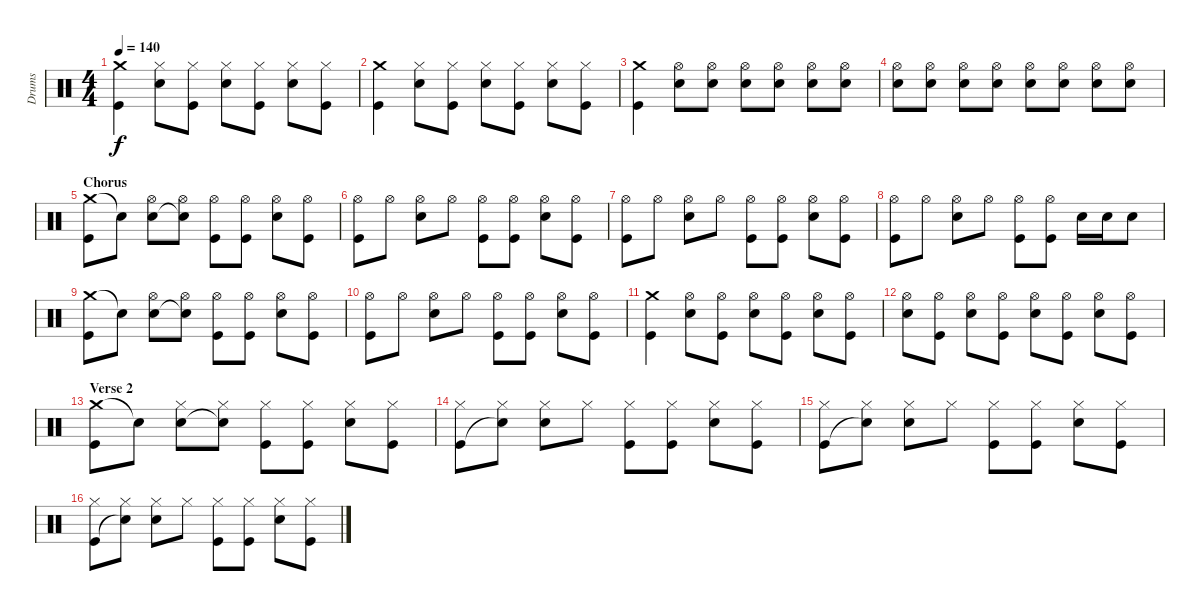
\track ("Drums" "Drums") {instrument percussion}
\staff {score}
\articulation defaults
\ts (4 4)
\tempo 140
\clef neutral
\ks c
("Crash medium (hit)" "Kick (hit)").4{dy f} ("Hi-Hat (closed)" "Snare (hit) 2").8 ("Hi-Hat (closed)" "Kick (hit)").8 ("Hi-Hat (closed)" "Snare (hit) 2").8 ("Hi-Hat (closed)" "Kick (hit)").8 ("Hi-Hat (closed)" "Snare (hit) 2").8 ("Hi-Hat (closed)" "Kick (hit)").8 |
("Crash medium (hit)" "Kick (hit)").4 ("Hi-Hat (closed)" "Snare (hit) 2").8 ("Hi-Hat (closed)" "Kick (hit)").8 ("Hi-Hat (closed)" "Snare (hit) 2").8 ("Hi-Hat (closed)" "Kick (hit)").8 ("Hi-Hat (closed)" "Snare (hit) 2").8 ("Hi-Hat (closed)" "Kick (hit)").8 |
("Crash medium (hit)" "Kick (hit)").4 ("Hi-Hat (open)" "Snare (hit) 2").8 ("Hi-Hat (open)" "Snare (hit) 2").8 ("Hi-Hat (open)" "Snare (hit) 2").8 ("Hi-Hat (open)" "Snare (hit) 2").8 ("Hi-Hat (open)" "Snare (hit) 2").8 ("Hi-Hat (open)" "Snare (hit) 2").8 |
("Hi-Hat (open)" "Snare (hit) 2").8 ("Hi-Hat (open)" "Snare (hit) 2").8 ("Hi-Hat (open)" "Snare (hit) 2").8 ("Hi-Hat (open)" "Snare (hit) 2").8 ("Hi-Hat (open)" "Snare (hit) 2").8 ("Hi-Hat (open)" "Snare (hit) 2").8 ("Hi-Hat (open)" "Snare (hit) 2").8 ("Hi-Hat (open)" "Snare (hit) 2").8 |
\section ("" "Chorus")
("Crash medium (hit)" "Kick (hit)").8 "Snare (hit)"{t}.8 ("Hi-Hat (open)" "Snare (hit) 2").8 ("Hi-Hat (open)" "Snare (hit)"{t}).8 ("Hi-Hat (open)" "Kick (hit)").8 ("Hi-Hat (open)" "Kick (hit)").8 ("Hi-Hat (open)" "Snare (hit) 2").8 ("Hi-Hat (open)" "Kick (hit)").8 |
("Hi-Hat (open)" "Kick (hit)").8 "Hi-Hat (open)".8 ("Hi-Hat (open)" "Snare (hit) 2").8 "Hi-Hat (open)".8 ("Hi-Hat (open)" "Kick (hit)").8 ("Hi-Hat (open)" "Kick (hit)").8 ("Hi-Hat (open)" "Snare (hit) 2").8 ("Hi-Hat (open)" "Kick (hit)").8 |
("Hi-Hat (open)" "Kick (hit)").8 "Hi-Hat (open)".8 ("Hi-Hat (open)" "Snare (hit) 2").8 "Hi-Hat (open)".8 ("Hi-Hat (open)" "Kick (hit)").8 ("Hi-Hat (open)" "Kick (hit)").8 ("Hi-Hat (open)" "Snare (hit) 2").8 ("Hi-Hat (open)" "Kick (hit)").8 |
("Hi-Hat (open)" "Kick (hit)").8 "Hi-Hat (open)".8 ("Hi-Hat (open)" "Snare (hit) 2").8 "Hi-Hat (open)".8 ("Hi-Hat (open)" "Kick (hit)").8 ("Hi-Hat (open)" "Kick (hit)").8 "Snare (hit) 2".16 "Snare (hit) 2".16 "Snare (hit) 2".8 |
("Crash medium (hit)" "Kick (hit)").8 "Snare (hit)"{t}.8 ("Hi-Hat (open)" "Snare (hit) 2").8 ("Hi-Hat (open)" "Snare (hit)"{t}).8 ("Hi-Hat (open)" "Kick (hit)").8 ("Hi-Hat (open)" "Kick (hit)").8 ("Hi-Hat (open)" "Snare (hit) 2").8 ("Hi-Hat (open)" "Kick (hit)").8 |
("Hi-Hat (open)" "Kick (hit)").8 "Hi-Hat (open)".8 ("Hi-Hat (open)" "Snare (hit) 2").8 "Hi-Hat (open)".8 ("Hi-Hat (open)" "Kick (hit)").8 ("Hi-Hat (open)" "Kick (hit)").8 ("Hi-Hat (open)" "Snare (hit) 2").8 ("Hi-Hat (open)" "Kick (hit)").8 |
("Crash medium (hit)" "Kick (hit)").4 ("Hi-Hat (open)" "Snare (hit) 2").8 ("Hi-Hat (open)" "Kick (hit)").8 ("Hi-Hat (open)" "Snare (hit) 2").8 ("Hi-Hat (open)" "Kick (hit)").8 ("Hi-Hat (open)" "Snare (hit) 2").8 ("Hi-Hat (open)" "Kick (hit)").8 |
("Hi-Hat (open)" "Snare (hit) 2").8 ("Hi-Hat (open)" "Kick (hit)").8 ("Hi-Hat (open)" "Snare (hit) 2").8 ("Hi-Hat (open)" "Kick (hit)").8 ("Hi-Hat (open)" "Snare (hit) 2").8 ("Hi-Hat (open)" "Kick (hit)").8 ("Hi-Hat (open)" "Snare (hit) 2").8 ("Hi-Hat (open)" "Kick (hit)").8 |
\section ("" "Verse 2")
("Crash medium (hit)" "Kick (hit)").8 "Snare (hit)"{t}.8 ("Hi-Hat (closed)" "Snare (hit) 2").8 ("Hi-Hat (closed)" "Snare (hit)"{t}).8 ("Hi-Hat (closed)" "Kick (hit)").8 ("Hi-Hat (closed)" "Kick (hit)").8 ("Hi-Hat (closed)" "Snare (hit) 2").8 ("Hi-Hat (closed)" "Kick (hit)").8 |
("Hi-Hat (closed)" "Kick (hit)").8 ("Hi-Hat (closed)" "Snare (hit)"{t}).8 ("Hi-Hat (closed)" "Snare (hit) 2").8 "Hi-Hat (closed)".8 ("Hi-Hat (closed)" "Kick (hit)").8 ("Hi-Hat (closed)" "Kick (hit)").8 ("Hi-Hat (closed)" "Snare (hit) 2").8 ("Hi-Hat (closed)" "Kick (hit)").8 |
("Hi-Hat (closed)" "Kick (hit)").8 ("Hi-Hat (closed)" "Snare (hit)"{t}).8 ("Hi-Hat (closed)" "Snare (hit) 2").8 "Hi-Hat (closed)".8 ("Hi-Hat (closed)" "Kick (hit)").8 ("Hi-Hat (closed)" "Kick (hit)").8 ("Hi-Hat (closed)" "Snare (hit) 2").8 ("Hi-Hat (closed)" "Kick (hit)").8 |
("Hi-Hat (closed)" "Kick (hit)").8 ("Hi-Hat (closed)" "Snare (hit)"{t}).8 ("Hi-Hat (closed)" "Snare (hit) 2").8 "Hi-Hat (closed)".8 ("Hi-Hat (closed)" "Kick (hit)").8 ("Hi-Hat (closed)" "Kick (hit)").8 ("Hi-Hat (closed)" "Snare (hit) 2").8 ("Hi-Hat (closed)" "Kick (hit)").8
